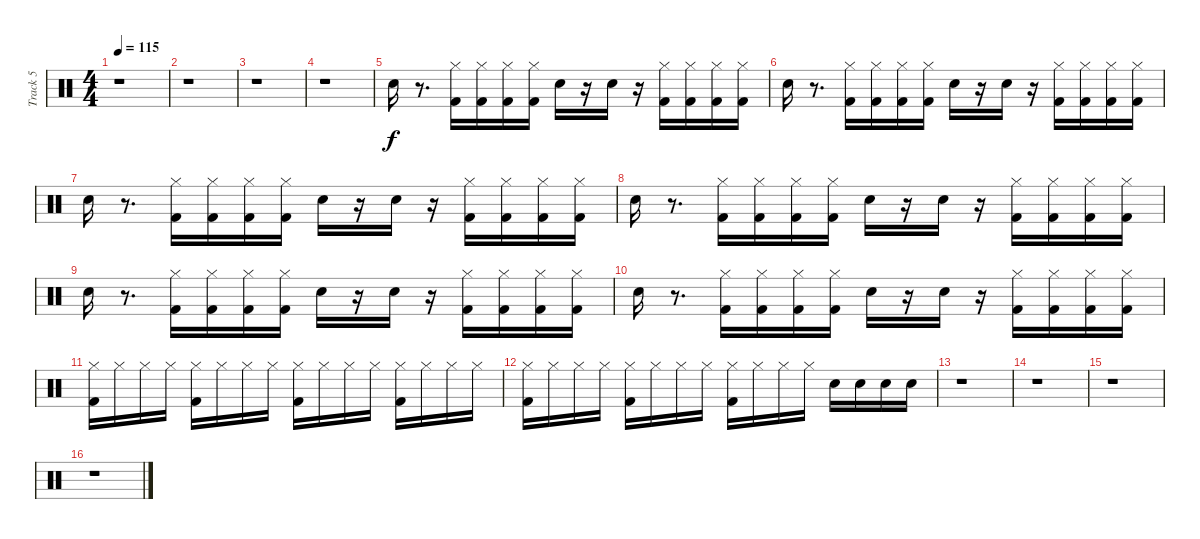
\track ("Track 5" "Track 5") {instrument percussion}
\staff {score}
\articulation defaults
\ts (4 4)
\tempo 115
\clef neutral
\ks c
r.1{dy f} |
r.1 |
r.1 |
r.1 |
"Snare (hit) 2".16 r.8{d} ("Hi-Hat (closed)" "Kick (hit) 2").16 ("Hi-Hat (closed)" "Kick (hit) 2").16 ("Hi-Hat (closed)" "Kick (hit) 2").16 ("Hi-Hat (closed)" "Kick (hit) 2").16 "Snare (hit) 2".16 r.16 "Snare (hit) 2".16 r.16 ("Hi-Hat (closed)" "Kick (hit) 2").16 ("Hi-Hat (closed)" "Kick (hit) 2").16 ("Hi-Hat (closed)" "Kick (hit) 2").16 ("Hi-Hat (closed)" "Kick (hit) 2").16 |
"Snare (hit) 2".16 r.8{d} ("Hi-Hat (closed)" "Kick (hit) 2").16 ("Hi-Hat (closed)" "Kick (hit) 2").16 ("Hi-Hat (closed)" "Kick (hit) 2").16 ("Hi-Hat (closed)" "Kick (hit) 2").16 "Snare (hit) 2".16 r.16 "Snare (hit) 2".16 r.16 ("Hi-Hat (closed)" "Kick (hit) 2").16 ("Hi-Hat (closed)" "Kick (hit) 2").16 ("Hi-Hat (closed)" "Kick (hit) 2").16 ("Hi-Hat (closed)" "Kick (hit) 2").16 |
"Snare (hit) 2".16 r.8{d} ("Hi-Hat (closed)" "Kick (hit) 2").16 ("Hi-Hat (closed)" "Kick (hit) 2").16 ("Hi-Hat (closed)" "Kick (hit) 2").16 ("Hi-Hat (closed)" "Kick (hit) 2").16 "Snare (hit) 2".16 r.16 "Snare (hit) 2".16 r.16 ("Hi-Hat (closed)" "Kick (hit) 2").16 ("Hi-Hat (closed)" "Kick (hit) 2").16 ("Hi-Hat (closed)" "Kick (hit) 2").16 ("Hi-Hat (closed)" "Kick (hit) 2").16 |
"Snare (hit) 2".16 r.8{d} ("Hi-Hat (closed)" "Kick (hit) 2").16 ("Hi-Hat (closed)" "Kick (hit) 2").16 ("Hi-Hat (closed)" "Kick (hit) 2").16 ("Hi-Hat (closed)" "Kick (hit) 2").16 "Snare (hit) 2".16 r.16 "Snare (hit) 2".16 r.16 ("Hi-Hat (closed)" "Kick (hit) 2").16 ("Hi-Hat (closed)" "Kick (hit) 2").16 ("Hi-Hat (closed)" "Kick (hit) 2").16 ("Hi-Hat (closed)" "Kick (hit) 2").16 |
"Snare (hit) 2".16 r.8{d} ("Hi-Hat (closed)" "Kick (hit) 2").16 ("Hi-Hat (closed)" "Kick (hit) 2").16 ("Hi-Hat (closed)" "Kick (hit) 2").16 ("Hi-Hat (closed)" "Kick (hit) 2").16 "Snare (hit) 2".16 r.16 "Snare (hit) 2".16 r.16 ("Hi-Hat (closed)" "Kick (hit) 2").16 ("Hi-Hat (closed)" "Kick (hit) 2").16 ("Hi-Hat (closed)" "Kick (hit) 2").16 ("Hi-Hat (closed)" "Kick (hit) 2").16 |
"Snare (hit) 2".16 r.8{d} ("Hi-Hat (closed)" "Kick (hit) 2").16 ("Hi-Hat (closed)" "Kick (hit) 2").16 ("Hi-Hat (closed)" "Kick (hit) 2").16 ("Hi-Hat (closed)" "Kick (hit) 2").16 "Snare (hit) 2".16 r.16 "Snare (hit) 2".16 r.16 ("Hi-Hat (closed)" "Kick (hit) 2").16 ("Hi-Hat (closed)" "Kick (hit) 2").16 ("Hi-Hat (closed)" "Kick (hit) 2").16 ("Hi-Hat (closed)" "Kick (hit) 2").16 |
("Hi-Hat (closed)" "Kick (hit) 2").16 "Hi-Hat (closed)".16 "Hi-Hat (closed)".16 "Hi-Hat (closed)".16 ("Hi-Hat (closed)" "Kick (hit) 2").16 "Hi-Hat (closed)".16 "Hi-Hat (closed)".16 "Hi-Hat (closed)".16 ("Hi-Hat (closed)" "Kick (hit) 2").16 "Hi-Hat (closed)".16 "Hi-Hat (closed)".16 "Hi-Hat (closed)".16 ("Hi-Hat (closed)" "Kick (hit) 2").16 "Hi-Hat (closed)".16 "Hi-Hat (closed)".16 "Hi-Hat (closed)".16 |
("Hi-Hat (closed)" "Kick (hit) 2").16 "Hi-Hat (closed)".16 "Hi-Hat (closed)".16 "Hi-Hat (closed)".16 ("Hi-Hat (closed)" "Kick (hit) 2").16 "Hi-Hat (closed)".16 "Hi-Hat (closed)".16 "Hi-Hat (closed)".16 ("Hi-Hat (closed)" "Kick (hit) 2").16 "Hi-Hat (closed)".16 "Hi-Hat (closed)".16 "Hi-Hat (closed)".16 "Snare (hit) 2".16 "Snare (hit) 2".16 "Snare (hit) 2".16 "Snare (hit) 2".16 |
r.1 |
r.1 |
r.1 |
r.1
